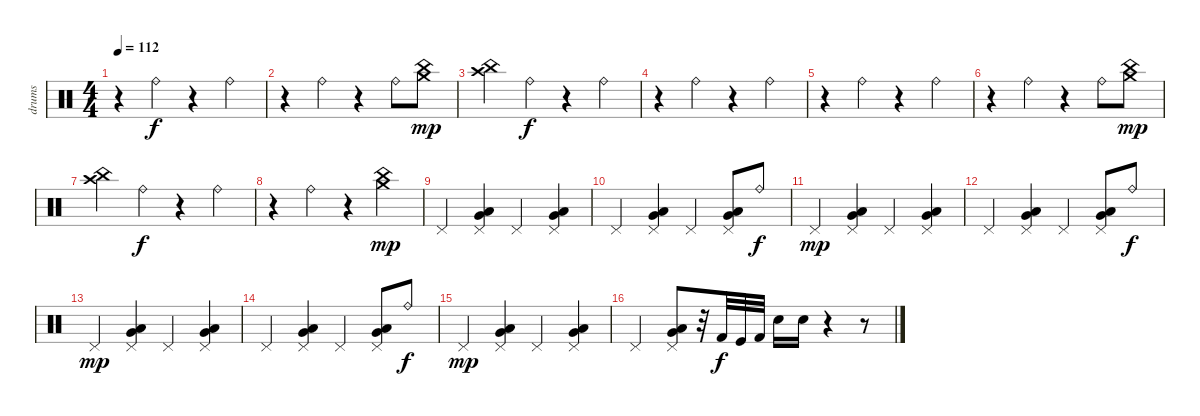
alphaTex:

\track ("drums" "drums") {instrument percussion}
\staff {score}
\articulation defaults
\ts (4 4)
\tempo 112
\clef neutral
\ks c
r.4{dy f} "Ride (bell)".4 r.4 "Ride (bell)".4 |
r.4 "Ride (bell)".4 r.4 "Ride (bell)".8 ("China (hit)" "Crash medium (hit)").8{dy mp} |
("China (hit)" "Crash high (hit)").4 "Ride (bell)".4{dy f} r.4 "Ride (bell)".4 |
r.4 "Ride (bell)".4 r.4 "Ride (bell)".4 |
r.4 "Ride (bell)".4 r.4 "Ride (bell)".4 |
r.4 "Ride (bell)".4 r.4 "Ride (bell)".8 ("China (hit)" "Crash medium (hit)").8{dy mp} |
("China (hit)" "Crash high (hit)").4 "Ride (bell)".4{dy f} r.4 "Ride (bell)".4 |
r.4 "Ride (bell)".4 r.4 ("Crash medium (hit)" "China (hit)").4{dy mp} |
"Pedal Hi-Hat (hit)".4 ("Very Low Tom (hit)" "Low Floor Tom (hit)" "Pedal Hi-Hat (hit)").4 "Pedal Hi-Hat (hit)".4 ("Very Low Tom (hit)" "Low Floor Tom (hit)" "Pedal Hi-Hat (hit)").4 |
"Pedal Hi-Hat (hit)".4 ("Very Low Tom (hit)" "Low Floor Tom (hit)" "Pedal Hi-Hat (hit)").4 "Pedal Hi-Hat (hit)".4 ("Very Low Tom (hit)" "Low Floor Tom (hit)" "Pedal Hi-Hat (hit)").8 "Ride (bell)".8{dy f} |
"Pedal Hi-Hat (hit)".4{dy mp} ("Very Low Tom (hit)" "Low Floor Tom (hit)" "Pedal Hi-Hat (hit)").4 "Pedal Hi-Hat (hit)".4 ("Very Low Tom (hit)" "Low Floor Tom (hit)" "Pedal Hi-Hat (hit)").4 |
"Pedal Hi-Hat (hit)".4 ("Very Low Tom (hit)" "Low Floor Tom (hit)" "Pedal Hi-Hat (hit)").4 "Pedal Hi-Hat (hit)".4 ("Very Low Tom (hit)" "Low Floor Tom (hit)" "Pedal Hi-Hat (hit)").8 "Ride (bell)".8{dy f} |
"Pedal Hi-Hat (hit)".4{dy mp} ("Very Low Tom (hit)" "Low Floor Tom (hit)" "Pedal Hi-Hat (hit)").4 "Pedal Hi-Hat (hit)".4 ("Very Low Tom (hit)" "Low Floor Tom (hit)" "Pedal Hi-Hat (hit)").4 |
"Pedal Hi-Hat (hit)".4 ("Very Low Tom (hit)" "Low Floor Tom (hit)" "Pedal Hi-Hat (hit)").4 "Pedal Hi-Hat (hit)".4 ("Very Low Tom (hit)" "Low Floor Tom (hit)" "Pedal Hi-Hat (hit)").8 "Ride (bell)".8{dy f} |
"Pedal Hi-Hat (hit)".4{dy mp} ("Very Low Tom (hit)" "Low Floor Tom (hit)" "Pedal Hi-Hat (hit)").4 "Pedal Hi-Hat (hit)".4 ("Very Low Tom (hit)" "Low Floor Tom (hit)" "Pedal Hi-Hat (hit)").4 |
"Pedal Hi-Hat (hit)".4 ("Very Low Tom (hit)" "Low Floor Tom (hit)" "Pedal Hi-Hat (hit)").8 r.32 "Kick (hit) 2".32{dy f} "Kick (hit)".32 "Kick (hit) 2".32 "Electric Snare (hit)".16 "Electric Snare (hit)".16 r.4 r.8
